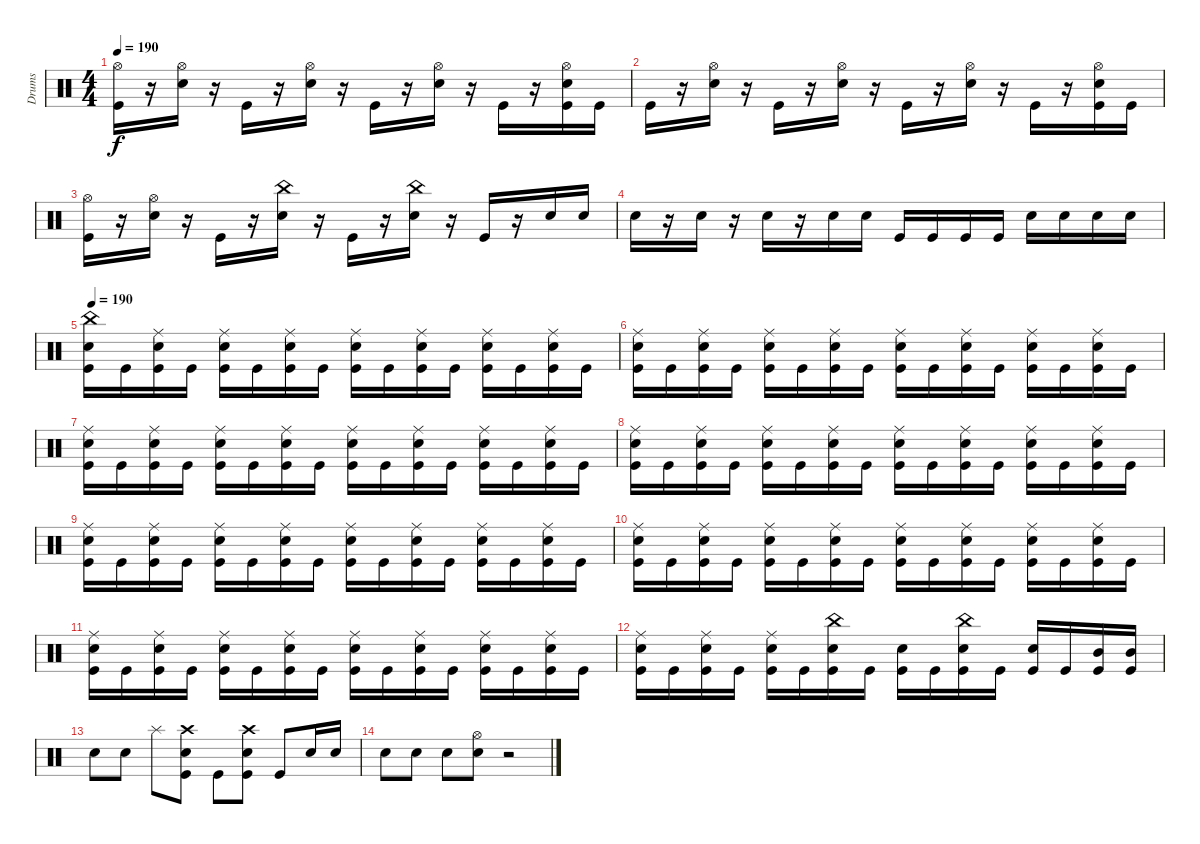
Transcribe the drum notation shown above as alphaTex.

\track ("Drums" "Drums") {instrument percussion}
\staff {score}
\articulation defaults
\ts (4 4)
\tempo 190
\clef neutral
\ks c
("Hi-Hat (open)" "Kick (hit)").16{dy f volume 13} r.16 ("Hi-Hat (open)" "Electric Snare (hit)").16 r.16 "Kick (hit)".16{volume 13} r.16 ("Hi-Hat (open)" "Electric Snare (hit)").16 r.16 "Kick (hit)".16{volume 13} r.16 ("Hi-Hat (open)" "Electric Snare (hit)").16 r.16 "Kick (hit)".16{volume 13} r.16 ("Hi-Hat (open)" "Electric Snare (hit)" "Kick (hit)").16 "Kick (hit)".16 |
"Kick (hit)".16{volume 13} r.16 ("Hi-Hat (open)" "Electric Snare (hit)").16 r.16 "Kick (hit)".16{volume 13} r.16 ("Hi-Hat (open)" "Electric Snare (hit)").16 r.16 "Kick (hit)".16{volume 13} r.16 ("Hi-Hat (open)" "Electric Snare (hit)").16 r.16 "Kick (hit)".16{volume 13} r.16 ("Hi-Hat (open)" "Electric Snare (hit)" "Kick (hit)").16 "Kick (hit)".16 |
("Hi-Hat (open)" "Kick (hit)").16{volume 13} r.16 ("Hi-Hat (open)" "Electric Snare (hit)").16 r.16 "Kick (hit)".16{volume 13} r.16 ("China (hit)" "Electric Snare (hit)").16 r.16 "Kick (hit)".16{volume 13} r.16 ("China (hit)" "Electric Snare (hit)").16 r.16 "Kick (hit)".16{volume 13} r.16 "Electric Snare (hit)".16 "Electric Snare (hit)".16 |
"Electric Snare (hit)".16{volume 13} r.16 "Electric Snare (hit)".16 r.16 "Electric Snare (hit)".16{volume 13} r.16 "Electric Snare (hit)".16 "Electric Snare (hit)".16 "Kick (hit)".16{volume 13} "Kick (hit)".16 "Kick (hit)".16 "Kick (hit)".16 "Electric Snare (hit)".16{volume 13} "Electric Snare (hit)".16 "Electric Snare (hit)".16 "Electric Snare (hit)".16 |
\tempo 190
("China (hit)" "Electric Snare (hit)" "Kick (hit)").16 "Kick (hit)".16 ("Ride (middle)" "Electric Snare (hit)" "Kick (hit)").16 "Kick (hit)".16 ("Ride (middle)" "Electric Snare (hit)" "Kick (hit)").16 "Kick (hit)".16 ("Ride (middle)" "Electric Snare (hit)" "Kick (hit)").16 "Kick (hit)".16 ("Ride (middle)" "Electric Snare (hit)" "Kick (hit)").16 "Kick (hit)".16 ("Ride (middle)" "Electric Snare (hit)" "Kick (hit)").16 "Kick (hit)".16 ("Ride (middle)" "Electric Snare (hit)" "Kick (hit)").16 "Kick (hit)".16 ("Ride (middle)" "Electric Snare (hit)" "Kick (hit)").16 "Kick (hit)".16 |
("Ride (middle)" "Electric Snare (hit)" "Kick (hit)").16 "Kick (hit)".16 ("Ride (middle)" "Electric Snare (hit)" "Kick (hit)").16 "Kick (hit)".16 ("Ride (middle)" "Electric Snare (hit)" "Kick (hit)").16 "Kick (hit)".16 ("Ride (middle)" "Electric Snare (hit)" "Kick (hit)").16 "Kick (hit)".16 ("Ride (middle)" "Electric Snare (hit)" "Kick (hit)").16 "Kick (hit)".16 ("Ride (middle)" "Electric Snare (hit)" "Kick (hit)").16 "Kick (hit)".16 ("Ride (middle)" "Electric Snare (hit)" "Kick (hit)").16 "Kick (hit)".16 ("Ride (middle)" "Electric Snare (hit)" "Kick (hit)").16 "Kick (hit)".16 |
("Ride (middle)" "Electric Snare (hit)" "Kick (hit)").16 "Kick (hit)".16 ("Ride (middle)" "Electric Snare (hit)" "Kick (hit)").16 "Kick (hit)".16 ("Ride (middle)" "Electric Snare (hit)" "Kick (hit)").16 "Kick (hit)".16 ("Ride (middle)" "Electric Snare (hit)" "Kick (hit)").16 "Kick (hit)".16 ("Ride (middle)" "Electric Snare (hit)" "Kick (hit)").16 "Kick (hit)".16 ("Ride (middle)" "Electric Snare (hit)" "Kick (hit)").16 "Kick (hit)".16 ("Ride (middle)" "Electric Snare (hit)" "Kick (hit)").16 "Kick (hit)".16 ("Ride (middle)" "Electric Snare (hit)" "Kick (hit)").16 "Kick (hit)".16 |
("Ride (middle)" "Electric Snare (hit)" "Kick (hit)").16 "Kick (hit)".16 ("Ride (middle)" "Electric Snare (hit)" "Kick (hit)").16 "Kick (hit)".16 ("Ride (middle)" "Electric Snare (hit)" "Kick (hit)").16 "Kick (hit)".16 ("Ride (middle)" "Electric Snare (hit)" "Kick (hit)").16 "Kick (hit)".16 ("Ride (middle)" "Electric Snare (hit)" "Kick (hit)").16 "Kick (hit)".16 ("Ride (middle)" "Electric Snare (hit)" "Kick (hit)").16 "Kick (hit)".16 ("Ride (middle)" "Electric Snare (hit)" "Kick (hit)").16 "Kick (hit)".16 ("Ride (middle)" "Electric Snare (hit)" "Kick (hit)").16 "Kick (hit)".16 |
("Ride (middle)" "Electric Snare (hit)" "Kick (hit)").16 "Kick (hit)".16 ("Ride (middle)" "Electric Snare (hit)" "Kick (hit)").16 "Kick (hit)".16 ("Ride (middle)" "Electric Snare (hit)" "Kick (hit)").16 "Kick (hit)".16 ("Ride (middle)" "Electric Snare (hit)" "Kick (hit)").16 "Kick (hit)".16 ("Ride (middle)" "Electric Snare (hit)" "Kick (hit)").16 "Kick (hit)".16 ("Ride (middle)" "Electric Snare (hit)" "Kick (hit)").16 "Kick (hit)".16 ("Ride (middle)" "Electric Snare (hit)" "Kick (hit)").16 "Kick (hit)".16 ("Ride (middle)" "Electric Snare (hit)" "Kick (hit)").16 "Kick (hit)".16 |
("Ride (middle)" "Electric Snare (hit)" "Kick (hit)").16 "Kick (hit)".16 ("Ride (middle)" "Electric Snare (hit)" "Kick (hit)").16 "Kick (hit)".16 ("Ride (middle)" "Electric Snare (hit)" "Kick (hit)").16 "Kick (hit)".16 ("Ride (middle)" "Electric Snare (hit)" "Kick (hit)").16 "Kick (hit)".16 ("Ride (middle)" "Electric Snare (hit)" "Kick (hit)").16 "Kick (hit)".16 ("Ride (middle)" "Electric Snare (hit)" "Kick (hit)").16 "Kick (hit)".16 ("Ride (middle)" "Electric Snare (hit)" "Kick (hit)").16 "Kick (hit)".16 ("Ride (middle)" "Electric Snare (hit)" "Kick (hit)").16 "Kick (hit)".16 |
("Ride (middle)" "Electric Snare (hit)" "Kick (hit)").16 "Kick (hit)".16 ("Ride (middle)" "Electric Snare (hit)" "Kick (hit)").16 "Kick (hit)".16 ("Ride (middle)" "Electric Snare (hit)" "Kick (hit)").16 "Kick (hit)".16 ("Ride (middle)" "Electric Snare (hit)" "Kick (hit)").16 "Kick (hit)".16 ("Ride (middle)" "Electric Snare (hit)" "Kick (hit)").16 "Kick (hit)".16 ("Ride (middle)" "Electric Snare (hit)" "Kick (hit)").16 "Kick (hit)".16 ("Ride (middle)" "Electric Snare (hit)" "Kick (hit)").16 "Kick (hit)".16 ("Ride (middle)" "Electric Snare (hit)" "Kick (hit)").16 "Kick (hit)".16 |
("Ride (middle)" "Electric Snare (hit)" "Kick (hit)").16 "Kick (hit)".16 ("Ride (middle)" "Electric Snare (hit)" "Kick (hit)").16 "Kick (hit)".16 ("Ride (middle)" "Electric Snare (hit)" "Kick (hit)").16 "Kick (hit)".16 ("China (hit)" "Electric Snare (hit)" "Kick (hit)").16 "Kick (hit)".16 ("Electric Snare (hit)" "Kick (hit)").16 "Kick (hit)".16 ("China (hit)" "Electric Snare (hit)" "Kick (hit)").16 "Kick (hit)".16 ("Electric Snare (hit)" "Kick (hit)").16 "Kick (hit)".16 ("Mid Tom (hit)" "Kick (hit)").16 ("Mid Tom (hit)" "Kick (hit)").16 |
"Electric Snare (hit)".8 "Electric Snare (hit)".8 "Splash (hit)".8 ("Crash high (hit)" "Electric Snare (hit)" "Kick (hit)").8 "Kick (hit)".8 ("Crash high (hit)" "Electric Snare (hit)" "Kick (hit)").8 "Kick (hit)".8 "Electric Snare (hit)".16 "Electric Snare (hit)".16 |
"Electric Snare (hit)".8 "Electric Snare (hit)".8 "Electric Snare (hit)".8 ("Hi-Hat (open)" "Electric Snare (hit)").8 r.2
